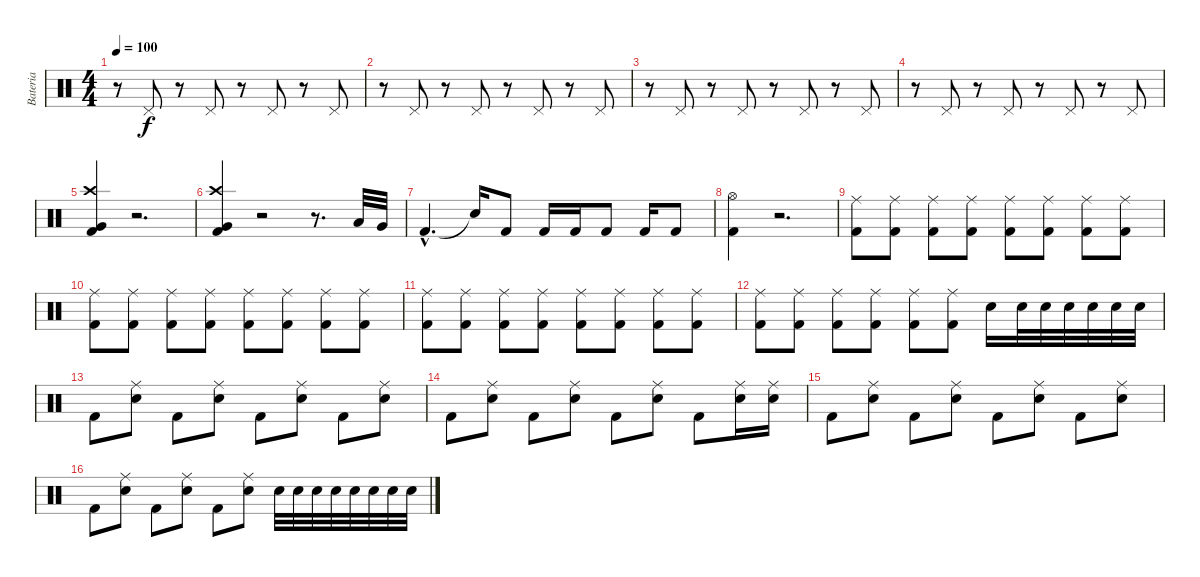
\track ("Bateria" "Bateria") {instrument percussion}
\staff {score}
\articulation defaults
\ts (4 4)
\tempo 100
\clef neutral
\ks c
r.8{dy f} "Pedal Hi-Hat (hit)".8 r.8 "Pedal Hi-Hat (hit)".8 r.8 "Pedal Hi-Hat (hit)".8 r.8 "Pedal Hi-Hat (hit)".8 |
r.8 "Pedal Hi-Hat (hit)".8 r.8 "Pedal Hi-Hat (hit)".8 r.8 "Pedal Hi-Hat (hit)".8 r.8 "Pedal Hi-Hat (hit)".8 |
r.8 "Pedal Hi-Hat (hit)".8 r.8 "Pedal Hi-Hat (hit)".8 r.8 "Pedal Hi-Hat (hit)".8 r.8 "Pedal Hi-Hat (hit)".8 |
r.8 "Pedal Hi-Hat (hit)".8 r.8 "Pedal Hi-Hat (hit)".8 r.8 "Pedal Hi-Hat (hit)".8 r.8 "Pedal Hi-Hat (hit)".8 |
("Very Low Tom (hit)" "Crash high (hit)" "Kick (hit) 2").4 r.2{d} |
("Very Low Tom (hit)" "Crash high (hit)" "Kick (hit) 2").4 r.2 r.8{d} "Low Tom (hit)".32 "Very Low Tom (hit)".32 |
"Kick (hit) 2"{hac}.4{d} "Snare (hit)"{t}.16 "Kick (hit) 2".8 "Kick (hit) 2".16 "Kick (hit) 2".16 "Kick (hit) 2".8 "Kick (hit) 2".16 "Kick (hit) 2".8 |
("Hi-Hat (open)" "Kick (hit) 2").4 r.2{d} |
("Ride (middle)" "Kick (hit) 2").8 ("Ride (middle)" "Kick (hit) 2").8 ("Ride (middle)" "Kick (hit) 2").8 ("Ride (middle)" "Kick (hit) 2").8 ("Ride (middle)" "Kick (hit) 2").8 ("Ride (middle)" "Kick (hit) 2").8 ("Ride (middle)" "Kick (hit) 2").8 ("Ride (middle)" "Kick (hit) 2").8 |
("Ride (middle)" "Kick (hit) 2").8 ("Ride (middle)" "Kick (hit) 2").8 ("Ride (middle)" "Kick (hit) 2").8 ("Ride (middle)" "Kick (hit) 2").8 ("Ride (middle)" "Kick (hit) 2").8 ("Ride (middle)" "Kick (hit) 2").8 ("Ride (middle)" "Kick (hit) 2").8 ("Ride (middle)" "Kick (hit) 2").8 |
("Ride (middle)" "Kick (hit) 2").8 ("Ride (middle)" "Kick (hit) 2").8 ("Ride (middle)" "Kick (hit) 2").8 ("Ride (middle)" "Kick (hit) 2").8 ("Ride (middle)" "Kick (hit) 2").8 ("Ride (middle)" "Kick (hit) 2").8 ("Ride (middle)" "Kick (hit) 2").8 ("Ride (middle)" "Kick (hit) 2").8 |
("Ride (middle)" "Kick (hit) 2").8 ("Ride (middle)" "Kick (hit) 2").8 ("Ride (middle)" "Kick (hit) 2").8 ("Ride (middle)" "Kick (hit) 2").8 ("Ride (middle)" "Kick (hit) 2").8 ("Kick (hit) 2" "Ride (middle)").8 "Snare (hit) 2".16 "Snare (hit) 2".32 "Snare (hit) 2".32 "Snare (hit) 2".32 "Snare (hit) 2".32 "Snare (hit) 2".32 "Snare (hit) 2".32 |
"Kick (hit) 2".8 ("Ride (middle)" "Snare (hit) 2").8 "Kick (hit) 2".8 ("Ride (middle)" "Snare (hit) 2").8 "Kick (hit) 2".8 ("Ride (middle)" "Snare (hit) 2").8 "Kick (hit) 2".8 ("Ride (middle)" "Snare (hit) 2").8 |
"Kick (hit) 2".8 ("Ride (middle)" "Snare (hit) 2").8 "Kick (hit) 2".8 ("Ride (middle)" "Snare (hit) 2").8 "Kick (hit) 2".8 ("Ride (middle)" "Snare (hit) 2").8 "Kick (hit) 2".8 ("Ride (middle)" "Snare (hit) 2").16 ("Ride (middle)" "Snare (hit) 2").16 |
"Kick (hit) 2".8 ("Ride (middle)" "Snare (hit) 2").8 "Kick (hit) 2".8 ("Ride (middle)" "Snare (hit) 2").8 "Kick (hit) 2".8 ("Ride (middle)" "Snare (hit) 2").8 "Kick (hit) 2".8 ("Ride (middle)" "Snare (hit) 2").8 |
"Kick (hit) 2".8 ("Ride (middle)" "Snare (hit) 2").8 "Kick (hit) 2".8 ("Ride (middle)" "Snare (hit) 2").8 "Kick (hit) 2".8 ("Ride (middle)" "Snare (hit) 2").8 "Snare (hit) 2".32 "Snare (hit) 2".32 "Snare (hit) 2".32 "Snare (hit) 2".32 "Snare (hit) 2".32 "Snare (hit) 2".32 "Snare (hit) 2".32 "Snare (hit) 2".32
